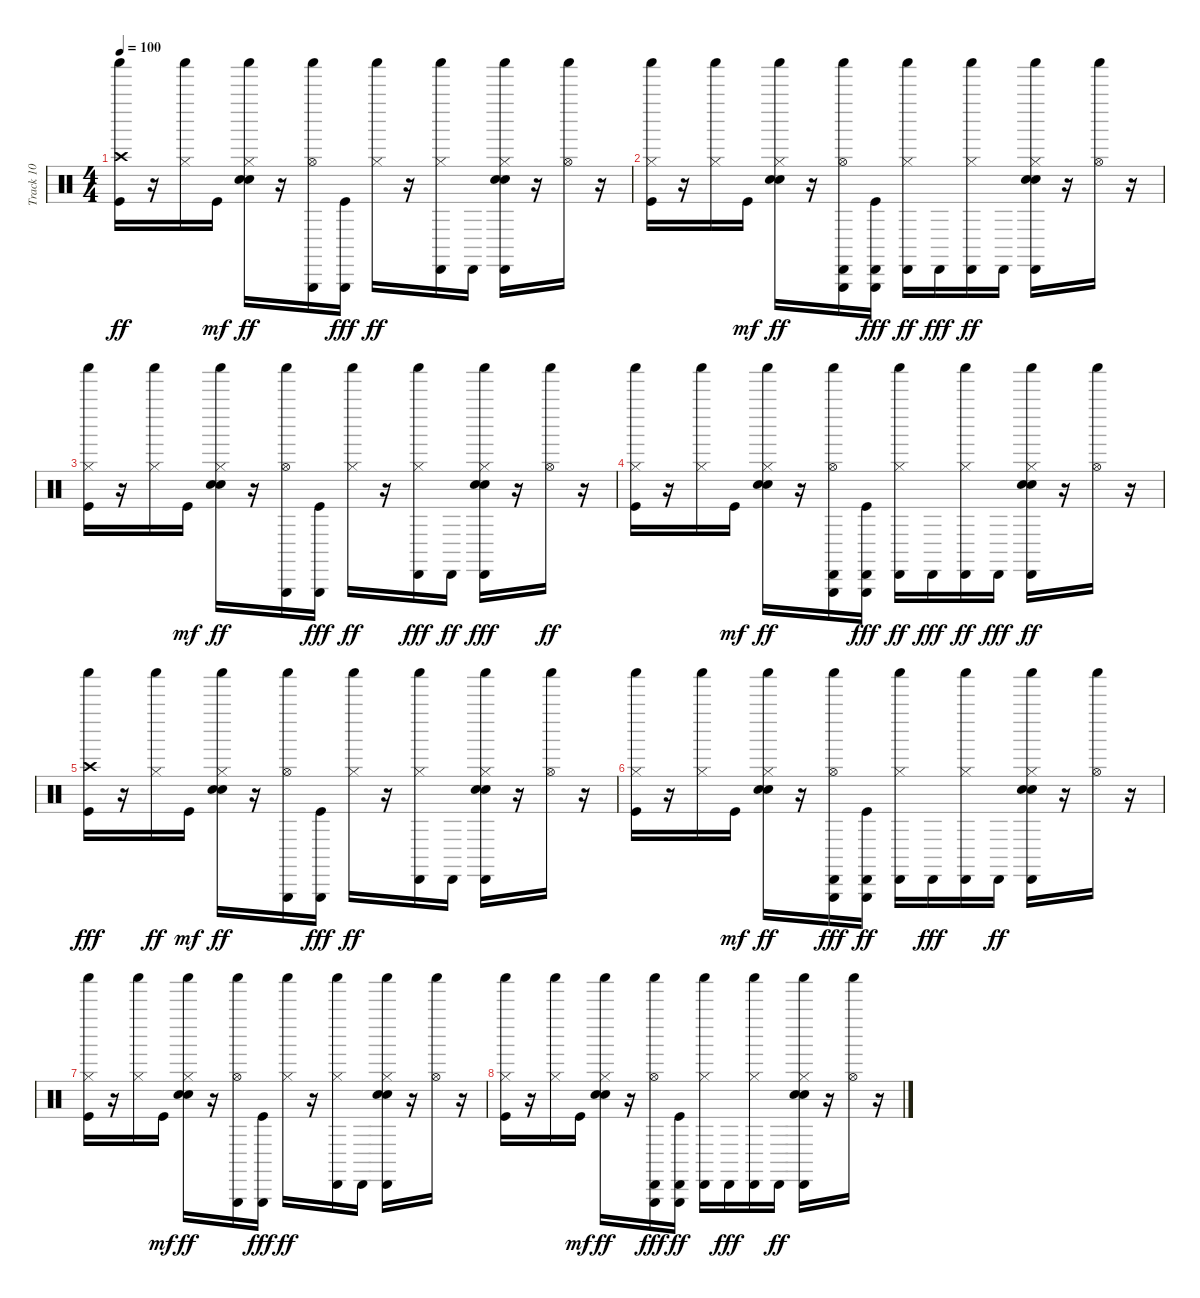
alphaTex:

\track ("Track 10" "Track 10") {instrument percussion}
\staff {score}
\articulation defaults
\ts (4 4)
\tempo 100
\clef neutral
\ks c
("Shaker (hit)" "Kick (hit)" "Crash high (hit)").16{dy ff} r.16 ("Hi-Hat (closed)" "Shaker (hit)").16 "Kick (hit)".16{dy mf} ("Shaker (hit)" "Hi-Hat (closed)" "Electric Snare (hit)" "Hand Clap (hit)").16{dy ff} r.16 ("Triangle (hit)" "Shaker (hit)" "Hi-Hat (open)").16 ("Kick (hit)" "Triangle (hit)").16{dy fff} ("Hi-Hat (closed)" "Shaker (hit)").16{dy ff} r.16 ("Hi-Hat (closed)" "Cabasa (hit)" "Shaker (hit)").16 "Cabasa (hit)".16 ("Hi-Hat (closed)" "Cabasa (hit)" "Electric Snare (hit)" "Hand Clap (hit)" "Shaker (hit)").16 r.16 ("Hi-Hat (open)" "Shaker (hit)").16 r.16 |
("Kick (hit)" "Hi-Hat (closed)" "Shaker (hit)").16 r.16 ("Shaker (hit)" "Hi-Hat (closed)").16 "Kick (hit)".16{dy mf} ("Shaker (hit)" "Hand Clap (hit)" "Electric Snare (hit)" "Hi-Hat (closed)").16{dy ff} r.16 ("Cabasa (hit)" "Shaker (hit)" "Triangle (hit)" "Hi-Hat (open)").16 ("Cabasa (hit)" "Triangle (hit)" "Kick (hit)").16{dy fff} ("Hi-Hat (closed)" "Cabasa (hit)" "Shaker (hit)").16{dy ff} "Cabasa (hit)".16{dy fff} ("Hi-Hat (closed)" "Shaker (hit)" "Cabasa (hit)").16{dy ff} "Cabasa (hit)".16 ("Cabasa (hit)" "Shaker (hit)" "Hand Clap (hit)" "Electric Snare (hit)" "Hi-Hat (closed)").16 r.16 ("Shaker (hit)" "Hi-Hat (open)").16 r.16 |
("Shaker (hit)" "Kick (hit)" "Hi-Hat (closed)").16 r.16 ("Hi-Hat (closed)" "Shaker (hit)").16 "Kick (hit)".16{dy mf} ("Shaker (hit)" "Hand Clap (hit)" "Electric Snare (hit)" "Hi-Hat (closed)").16{dy ff} r.16 ("Triangle (hit)" "Shaker (hit)" "Hi-Hat (open)").16 ("Triangle (hit)" "Kick (hit)").16{dy fff} ("Shaker (hit)" "Hi-Hat (closed)").16{dy ff} r.16 ("Shaker (hit)" "Hi-Hat (closed)" "Cabasa (hit)").16{dy fff} "Cabasa (hit)".16{dy ff} ("Electric Snare (hit)" "Hand Clap (hit)" "Hi-Hat (closed)" "Cabasa (hit)" "Shaker (hit)").16{dy fff} r.16 ("Hi-Hat (open)" "Shaker (hit)").16{dy ff} r.16 |
("Kick (hit)" "Hi-Hat (closed)" "Shaker (hit)").16 r.16 ("Shaker (hit)" "Hi-Hat (closed)").16 "Kick (hit)".16{dy mf} ("Shaker (hit)" "Hi-Hat (closed)" "Electric Snare (hit)" "Hand Clap (hit)").16{dy ff} r.16 ("Cabasa (hit)" "Triangle (hit)" "Shaker (hit)" "Hi-Hat (open)").16 ("Triangle (hit)" "Kick (hit)" "Cabasa (hit)").16{dy fff} ("Cabasa (hit)" "Shaker (hit)" "Hi-Hat (closed)").16{dy ff} "Cabasa (hit)".16{dy fff} ("Shaker (hit)" "Cabasa (hit)" "Hi-Hat (closed)").16{dy ff} "Cabasa (hit)".16{dy fff} ("Electric Snare (hit)" "Hi-Hat (closed)" "Shaker (hit)" "Hand Clap (hit)" "Cabasa (hit)").16{dy ff} r.16 ("Hi-Hat (open)" "Shaker (hit)").16 r.16 |
("Crash high (hit)" "Shaker (hit)" "Kick (hit)").16{dy fff} r.16 ("Hi-Hat (closed)" "Shaker (hit)").16{dy ff} "Kick (hit)".16{dy mf} ("Electric Snare (hit)" "Hi-Hat (closed)" "Hand Clap (hit)" "Shaker (hit)").16{dy ff} r.16 ("Hi-Hat (open)" "Triangle (hit)" "Shaker (hit)").16 ("Kick (hit)" "Triangle (hit)").16{dy fff} ("Shaker (hit)" "Hi-Hat (closed)").16{dy ff} r.16 ("Shaker (hit)" "Hi-Hat (closed)" "Cabasa (hit)").16 "Cabasa (hit)".16 ("Electric Snare (hit)" "Hi-Hat (closed)" "Cabasa (hit)" "Shaker (hit)" "Hand Clap (hit)").16 r.16 ("Hi-Hat (open)" "Shaker (hit)").16 r.16 |
("Kick (hit)" "Shaker (hit)" "Hi-Hat (closed)").16 r.16 ("Shaker (hit)" "Hi-Hat (closed)").16 "Kick (hit)".16{dy mf} ("Electric Snare (hit)" "Hi-Hat (closed)" "Shaker (hit)" "Hand Clap (hit)").16{dy ff} r.16 ("Shaker (hit)" "Triangle (hit)" "Hi-Hat (open)" "Cabasa (hit)").16{dy fff} ("Kick (hit)" "Cabasa (hit)" "Triangle (hit)").16{dy ff} ("Cabasa (hit)" "Hi-Hat (closed)" "Shaker (hit)").16 "Cabasa (hit)".16{dy fff} ("Shaker (hit)" "Hi-Hat (closed)" "Cabasa (hit)").16 "Cabasa (hit)".16{dy ff} ("Hand Clap (hit)" "Electric Snare (hit)" "Hi-Hat (closed)" "Cabasa (hit)" "Shaker (hit)").16 r.16 ("Shaker (hit)" "Hi-Hat (open)").16 r.16 |
("Shaker (hit)" "Kick (hit)" "Hi-Hat (closed)").16 r.16 ("Hi-Hat (closed)" "Shaker (hit)").16 "Kick (hit)".16{dy mf} ("Shaker (hit)" "Electric Snare (hit)" "Hi-Hat (closed)" "Hand Clap (hit)").16{dy ff} r.16 ("Hi-Hat (open)" "Triangle (hit)" "Shaker (hit)").16 ("Kick (hit)" "Triangle (hit)").16{dy fff} ("Shaker (hit)" "Hi-Hat (closed)").16{dy ff} r.16 ("Cabasa (hit)" "Shaker (hit)" "Hi-Hat (closed)").16 "Cabasa (hit)".16 ("Shaker (hit)" "Hi-Hat (closed)" "Cabasa (hit)" "Hand Clap (hit)" "Electric Snare (hit)").16 r.16 ("Shaker (hit)" "Hi-Hat (open)").16 r.16 |
("Kick (hit)" "Shaker (hit)" "Hi-Hat (closed)").16 r.16 ("Shaker (hit)" "Hi-Hat (closed)").16 "Kick (hit)".16{dy mf} ("Electric Snare (hit)" "Hi-Hat (closed)" "Shaker (hit)" "Hand Clap (hit)").16{dy ff} r.16 ("Shaker (hit)" "Triangle (hit)" "Hi-Hat (open)" "Cabasa (hit)").16{dy fff} ("Kick (hit)" "Cabasa (hit)" "Triangle (hit)").16{dy ff} ("Cabasa (hit)" "Hi-Hat (closed)" "Shaker (hit)").16 "Cabasa (hit)".16{dy fff} ("Shaker (hit)" "Hi-Hat (closed)" "Cabasa (hit)").16 "Cabasa (hit)".16{dy ff} ("Hand Clap (hit)" "Electric Snare (hit)" "Hi-Hat (closed)" "Cabasa (hit)" "Shaker (hit)").16 r.16 ("Shaker (hit)" "Hi-Hat (open)").16 r.16
